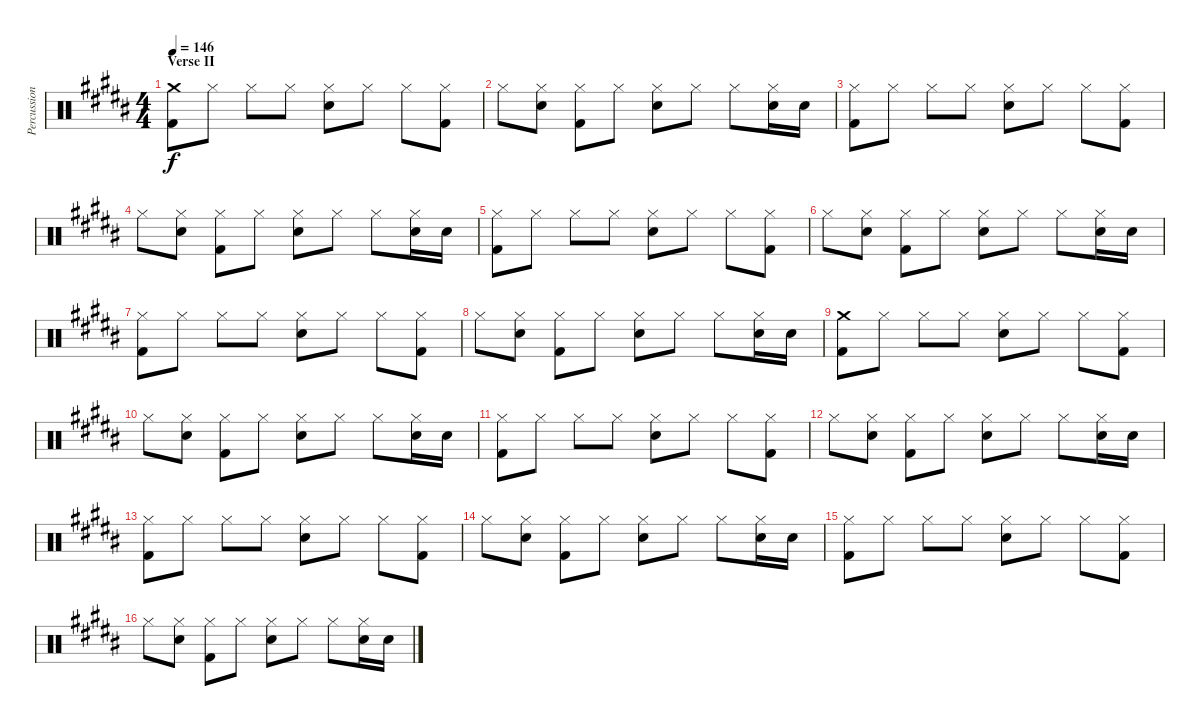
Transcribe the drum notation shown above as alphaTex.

\track ("Percussion" "Percussion") {instrument percussion}
\staff {score}
\articulation defaults
\ts (4 4)
\section ("" "Verse II")
\tempo 146
\clef neutral
\ks b
("Crash medium (hit)" "Kick (hit) 2").8{dy f} "Hi-Hat (closed)".8 "Hi-Hat (closed)".8 "Hi-Hat (closed)".8 ("Hi-Hat (closed)" "Snare (hit) 2").8 "Hi-Hat (closed)".8 "Hi-Hat (closed)".8 ("Hi-Hat (closed)" "Kick (hit) 2").8 |
"Hi-Hat (closed)".8 ("Hi-Hat (closed)" "Snare (hit) 2").8 ("Hi-Hat (closed)" "Kick (hit) 2").8 "Hi-Hat (closed)".8 ("Hi-Hat (closed)" "Snare (hit) 2").8 "Hi-Hat (closed)".8 "Hi-Hat (closed)".8 ("Hi-Hat (closed)" "Snare (hit) 2").16 "Snare (hit) 2".16 |
("Hi-Hat (closed)" "Kick (hit) 2").8 "Hi-Hat (closed)".8 "Hi-Hat (closed)".8 "Hi-Hat (closed)".8 ("Hi-Hat (closed)" "Snare (hit) 2").8 "Hi-Hat (closed)".8 "Hi-Hat (closed)".8 ("Hi-Hat (closed)" "Kick (hit) 2").8 |
"Hi-Hat (closed)".8 ("Hi-Hat (closed)" "Snare (hit) 2").8 ("Hi-Hat (closed)" "Kick (hit) 2").8 "Hi-Hat (closed)".8 ("Hi-Hat (closed)" "Snare (hit) 2").8 "Hi-Hat (closed)".8 "Hi-Hat (closed)".8 ("Hi-Hat (closed)" "Snare (hit) 2").16 "Snare (hit) 2".16 |
("Hi-Hat (closed)" "Kick (hit) 2").8 "Hi-Hat (closed)".8 "Hi-Hat (closed)".8 "Hi-Hat (closed)".8 ("Hi-Hat (closed)" "Snare (hit) 2").8 "Hi-Hat (closed)".8 "Hi-Hat (closed)".8 ("Hi-Hat (closed)" "Kick (hit) 2").8 |
"Hi-Hat (closed)".8 ("Hi-Hat (closed)" "Snare (hit) 2").8 ("Hi-Hat (closed)" "Kick (hit) 2").8 "Hi-Hat (closed)".8 ("Hi-Hat (closed)" "Snare (hit) 2").8 "Hi-Hat (closed)".8 "Hi-Hat (closed)".8 ("Hi-Hat (closed)" "Snare (hit) 2").16 "Snare (hit) 2".16 |
("Hi-Hat (closed)" "Kick (hit) 2").8 "Hi-Hat (closed)".8 "Hi-Hat (closed)".8 "Hi-Hat (closed)".8 ("Hi-Hat (closed)" "Snare (hit) 2").8 "Hi-Hat (closed)".8 "Hi-Hat (closed)".8 ("Hi-Hat (closed)" "Kick (hit) 2").8 |
"Hi-Hat (closed)".8 ("Hi-Hat (closed)" "Snare (hit) 2").8 ("Hi-Hat (closed)" "Kick (hit) 2").8 "Hi-Hat (closed)".8 ("Hi-Hat (closed)" "Snare (hit) 2").8 "Hi-Hat (closed)".8 "Hi-Hat (closed)".8 ("Hi-Hat (closed)" "Snare (hit) 2").16 "Snare (hit) 2".16 |
("Crash medium (hit)" "Kick (hit) 2").8 "Hi-Hat (closed)".8 "Hi-Hat (closed)".8 "Hi-Hat (closed)".8 ("Hi-Hat (closed)" "Snare (hit) 2").8 "Hi-Hat (closed)".8 "Hi-Hat (closed)".8 ("Hi-Hat (closed)" "Kick (hit) 2").8 |
"Hi-Hat (closed)".8 ("Hi-Hat (closed)" "Snare (hit) 2").8 ("Hi-Hat (closed)" "Kick (hit) 2").8 "Hi-Hat (closed)".8 ("Hi-Hat (closed)" "Snare (hit) 2").8 "Hi-Hat (closed)".8 "Hi-Hat (closed)".8 ("Hi-Hat (closed)" "Snare (hit) 2").16 "Snare (hit) 2".16 |
("Hi-Hat (closed)" "Kick (hit) 2").8 "Hi-Hat (closed)".8 "Hi-Hat (closed)".8 "Hi-Hat (closed)".8 ("Hi-Hat (closed)" "Snare (hit) 2").8 "Hi-Hat (closed)".8 "Hi-Hat (closed)".8 ("Hi-Hat (closed)" "Kick (hit) 2").8 |
"Hi-Hat (closed)".8 ("Hi-Hat (closed)" "Snare (hit) 2").8 ("Hi-Hat (closed)" "Kick (hit) 2").8 "Hi-Hat (closed)".8 ("Hi-Hat (closed)" "Snare (hit) 2").8 "Hi-Hat (closed)".8 "Hi-Hat (closed)".8 ("Hi-Hat (closed)" "Snare (hit) 2").16 "Snare (hit) 2".16 |
("Hi-Hat (closed)" "Kick (hit) 2").8 "Hi-Hat (closed)".8 "Hi-Hat (closed)".8 "Hi-Hat (closed)".8 ("Hi-Hat (closed)" "Snare (hit) 2").8 "Hi-Hat (closed)".8 "Hi-Hat (closed)".8 ("Hi-Hat (closed)" "Kick (hit) 2").8 |
"Hi-Hat (closed)".8 ("Hi-Hat (closed)" "Snare (hit) 2").8 ("Hi-Hat (closed)" "Kick (hit) 2").8 "Hi-Hat (closed)".8 ("Hi-Hat (closed)" "Snare (hit) 2").8 "Hi-Hat (closed)".8 "Hi-Hat (closed)".8 ("Hi-Hat (closed)" "Snare (hit) 2").16 "Snare (hit) 2".16 |
("Hi-Hat (closed)" "Kick (hit) 2").8 "Hi-Hat (closed)".8 "Hi-Hat (closed)".8 "Hi-Hat (closed)".8 ("Hi-Hat (closed)" "Snare (hit) 2").8 "Hi-Hat (closed)".8 "Hi-Hat (closed)".8 ("Hi-Hat (closed)" "Kick (hit) 2").8 |
"Hi-Hat (closed)".8 ("Hi-Hat (closed)" "Snare (hit) 2").8 ("Hi-Hat (closed)" "Kick (hit) 2").8 "Hi-Hat (closed)".8 ("Hi-Hat (closed)" "Snare (hit) 2").8 "Hi-Hat (closed)".8 "Hi-Hat (closed)".8 ("Hi-Hat (closed)" "Snare (hit) 2").16 "Snare (hit) 2".16
